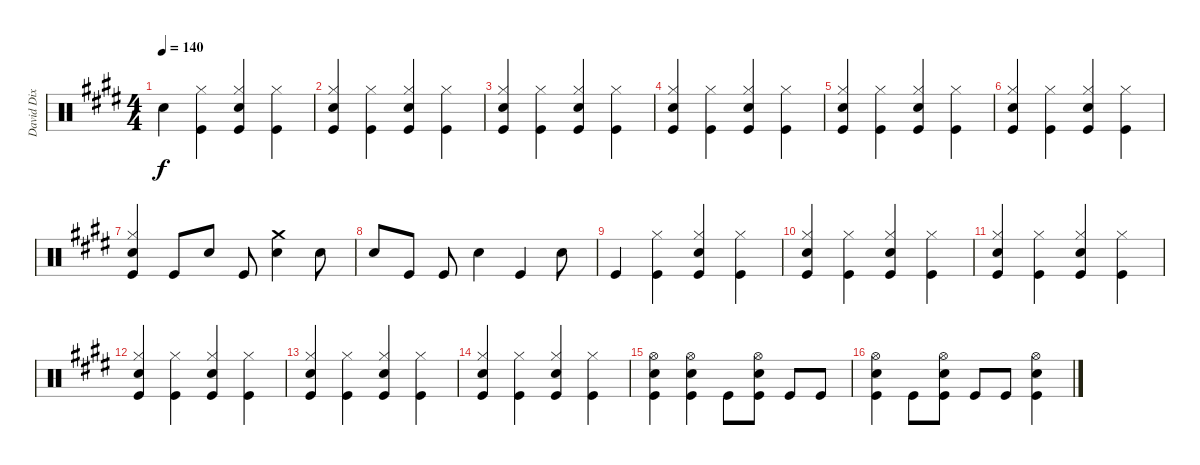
\track ("David Dix Drums" "David Dix ") {instrument percussion}
\staff {score}
\articulation defaults
\ts (4 4)
\tempo 140
\clef neutral
\ks e "Snare (hit) 2".4{dy f}
("Hi-Hat (closed)" "Kick (hit)").4 ("Hi-Hat (closed)" "Snare (hit) 2" "Kick (hit)").4 ("Hi-Hat (closed)" "Kick (hit)").4 |
("Hi-Hat (closed)" "Snare (hit) 2" "Kick (hit)").4 ("Hi-Hat (closed)" "Kick (hit)").4 ("Hi-Hat (closed)" "Snare (hit) 2" "Kick (hit)").4 ("Hi-Hat (closed)" "Kick (hit)").4 |
("Hi-Hat (closed)" "Snare (hit) 2" "Kick (hit)").4 ("Hi-Hat (closed)" "Kick (hit)").4 ("Hi-Hat (closed)" "Snare (hit) 2" "Kick (hit)").4 ("Hi-Hat (closed)" "Kick (hit)").4 |
("Hi-Hat (closed)" "Snare (hit) 2" "Kick (hit)").4 ("Hi-Hat (closed)" "Kick (hit)").4 ("Hi-Hat (closed)" "Snare (hit) 2" "Kick (hit)").4 ("Hi-Hat (closed)" "Kick (hit)").4 |
("Hi-Hat (closed)" "Snare (hit) 2" "Kick (hit)").4 ("Hi-Hat (closed)" "Kick (hit)").4 ("Hi-Hat (closed)" "Snare (hit) 2" "Kick (hit)").4 ("Hi-Hat (closed)" "Kick (hit)").4 |
("Hi-Hat (closed)" "Snare (hit) 2" "Kick (hit)").4 ("Hi-Hat (closed)" "Kick (hit)").4 ("Hi-Hat (closed)" "Snare (hit) 2" "Kick (hit)").4 ("Hi-Hat (closed)" "Kick (hit)").4 |
("Hi-Hat (closed)" "Snare (hit) 2" "Kick (hit)").4 "Kick (hit)".8 "Snare (hit) 2".8 "Kick (hit)".8 ("Crash medium (hit)" "Snare (hit) 2").4 "Snare (hit) 2".8 |
"Snare (hit) 2".8 "Kick (hit)".8 "Kick (hit)".8 "Snare (hit) 2".4 "Kick (hit)".4 "Snare (hit) 2".8 |
"Kick (hit)".4 ("Hi-Hat (closed)" "Kick (hit)").4 ("Hi-Hat (closed)" "Snare (hit) 2" "Kick (hit)").4 ("Hi-Hat (closed)" "Kick (hit)").4 |
("Hi-Hat (closed)" "Snare (hit) 2" "Kick (hit)").4 ("Hi-Hat (closed)" "Kick (hit)").4 ("Hi-Hat (closed)" "Snare (hit) 2" "Kick (hit)").4 ("Hi-Hat (closed)" "Kick (hit)").4 |
("Hi-Hat (closed)" "Snare (hit) 2" "Kick (hit)").4 ("Hi-Hat (closed)" "Kick (hit)").4 ("Hi-Hat (closed)" "Snare (hit) 2" "Kick (hit)").4 ("Hi-Hat (closed)" "Kick (hit)").4 |
("Hi-Hat (closed)" "Snare (hit) 2" "Kick (hit)").4 ("Hi-Hat (closed)" "Kick (hit)").4 ("Hi-Hat (closed)" "Snare (hit) 2" "Kick (hit)").4 ("Hi-Hat (closed)" "Kick (hit)").4 |
("Hi-Hat (closed)" "Snare (hit) 2" "Kick (hit)").4 ("Hi-Hat (closed)" "Kick (hit)").4 ("Hi-Hat (closed)" "Snare (hit) 2" "Kick (hit)").4 ("Hi-Hat (closed)" "Kick (hit)").4 |
("Hi-Hat (closed)" "Snare (hit) 2" "Kick (hit)").4 ("Hi-Hat (closed)" "Kick (hit)").4 ("Hi-Hat (closed)" "Snare (hit) 2" "Kick (hit)").4 ("Hi-Hat (closed)" "Kick (hit)").4 |
("Hi-Hat (open)" "Snare (hit) 2" "Kick (hit)").4 ("Hi-Hat (open)" "Snare (hit) 2" "Kick (hit)").4 "Kick (hit)".8 ("Hi-Hat (open)" "Snare (hit) 2" "Kick (hit)").8 "Kick (hit)".8 "Kick (hit)".8 |
("Hi-Hat (open)" "Snare (hit) 2" "Kick (hit)").4 "Kick (hit)".8 ("Hi-Hat (open)" "Snare (hit) 2" "Kick (hit)").8 "Kick (hit)".8 "Kick (hit)".8 ("Hi-Hat (open)" "Snare (hit) 2" "Kick (hit)").4
